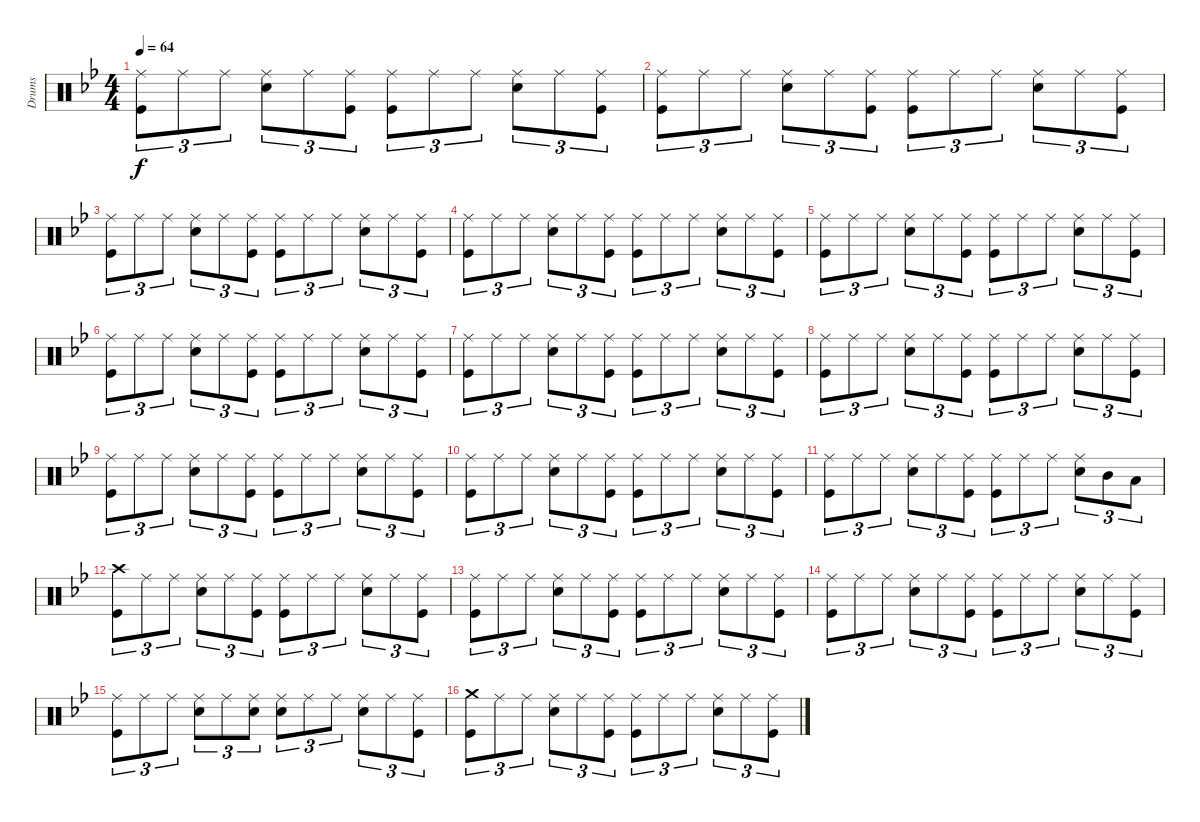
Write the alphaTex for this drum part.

\track ("Drums" "Drums") {instrument percussion}
\staff {score}
\articulation defaults
\ts (4 4)
\tempo 64
\clef neutral
\ks bb
("Ride (middle)" "Kick (hit)").8{tu (3 2) dy f} "Ride (middle)".8{tu (3 2)} "Ride (middle)".8{tu (3 2)} ("Ride (middle)" "Snare (hit) 2").8{tu (3 2)} "Ride (middle)".8{tu (3 2)} ("Ride (middle)" "Kick (hit)").8{tu (3 2)} ("Ride (middle)" "Kick (hit)").8{tu (3 2)} "Ride (middle)".8{tu (3 2)} "Ride (middle)".8{tu (3 2)} ("Ride (middle)" "Snare (hit) 2").8{tu (3 2)} "Ride (middle)".8{tu (3 2)} ("Ride (middle)" "Kick (hit)").8{tu (3 2)} |
("Ride (middle)" "Kick (hit)").8{tu (3 2)} "Ride (middle)".8{tu (3 2)} "Ride (middle)".8{tu (3 2)} ("Ride (middle)" "Snare (hit) 2").8{tu (3 2)} "Ride (middle)".8{tu (3 2)} ("Ride (middle)" "Kick (hit)").8{tu (3 2)} ("Ride (middle)" "Kick (hit)").8{tu (3 2)} "Ride (middle)".8{tu (3 2)} "Ride (middle)".8{tu (3 2)} ("Ride (middle)" "Snare (hit) 2").8{tu (3 2)} "Ride (middle)".8{tu (3 2)} ("Ride (middle)" "Kick (hit)").8{tu (3 2)} |
("Ride (middle)" "Kick (hit)").8{tu (3 2)} "Ride (middle)".8{tu (3 2)} "Ride (middle)".8{tu (3 2)} ("Ride (middle)" "Snare (hit) 2").8{tu (3 2)} "Ride (middle)".8{tu (3 2)} ("Ride (middle)" "Kick (hit)").8{tu (3 2)} ("Ride (middle)" "Kick (hit)").8{tu (3 2)} "Ride (middle)".8{tu (3 2)} "Ride (middle)".8{tu (3 2)} ("Ride (middle)" "Snare (hit) 2").8{tu (3 2)} "Ride (middle)".8{tu (3 2)} ("Ride (middle)" "Kick (hit)").8{tu (3 2)} |
("Ride (middle)" "Kick (hit)").8{tu (3 2)} "Ride (middle)".8{tu (3 2)} "Ride (middle)".8{tu (3 2)} ("Ride (middle)" "Snare (hit) 2").8{tu (3 2)} "Ride (middle)".8{tu (3 2)} ("Ride (middle)" "Kick (hit)").8{tu (3 2)} ("Ride (middle)" "Kick (hit)").8{tu (3 2)} "Ride (middle)".8{tu (3 2)} "Ride (middle)".8{tu (3 2)} ("Ride (middle)" "Snare (hit) 2").8{tu (3 2)} "Ride (middle)".8{tu (3 2)} ("Ride (middle)" "Kick (hit)").8{tu (3 2)} |
("Ride (middle)" "Kick (hit)").8{tu (3 2)} "Ride (middle)".8{tu (3 2)} "Ride (middle)".8{tu (3 2)} ("Ride (middle)" "Snare (hit) 2").8{tu (3 2)} "Ride (middle)".8{tu (3 2)} ("Ride (middle)" "Kick (hit)").8{tu (3 2)} ("Ride (middle)" "Kick (hit)").8{tu (3 2)} "Ride (middle)".8{tu (3 2)} "Ride (middle)".8{tu (3 2)} ("Ride (middle)" "Snare (hit) 2").8{tu (3 2)} "Ride (middle)".8{tu (3 2)} ("Ride (middle)" "Kick (hit)").8{tu (3 2)} |
("Ride (middle)" "Kick (hit)").8{tu (3 2)} "Ride (middle)".8{tu (3 2)} "Ride (middle)".8{tu (3 2)} ("Ride (middle)" "Snare (hit) 2").8{tu (3 2)} "Ride (middle)".8{tu (3 2)} ("Ride (middle)" "Kick (hit)").8{tu (3 2)} ("Ride (middle)" "Kick (hit)").8{tu (3 2)} "Ride (middle)".8{tu (3 2)} "Ride (middle)".8{tu (3 2)} ("Ride (middle)" "Snare (hit) 2").8{tu (3 2)} "Ride (middle)".8{tu (3 2)} ("Ride (middle)" "Kick (hit)").8{tu (3 2)} |
("Ride (middle)" "Kick (hit)").8{tu (3 2)} "Ride (middle)".8{tu (3 2)} "Ride (middle)".8{tu (3 2)} ("Ride (middle)" "Snare (hit) 2").8{tu (3 2)} "Ride (middle)".8{tu (3 2)} ("Ride (middle)" "Kick (hit)").8{tu (3 2)} ("Ride (middle)" "Kick (hit)").8{tu (3 2)} "Ride (middle)".8{tu (3 2)} "Ride (middle)".8{tu (3 2)} ("Ride (middle)" "Snare (hit) 2").8{tu (3 2)} "Ride (middle)".8{tu (3 2)} ("Ride (middle)" "Kick (hit)").8{tu (3 2)} |
("Ride (middle)" "Kick (hit)").8{tu (3 2)} "Ride (middle)".8{tu (3 2)} "Ride (middle)".8{tu (3 2)} ("Ride (middle)" "Snare (hit) 2").8{tu (3 2)} "Ride (middle)".8{tu (3 2)} ("Ride (middle)" "Kick (hit)").8{tu (3 2)} ("Ride (middle)" "Kick (hit)").8{tu (3 2)} "Ride (middle)".8{tu (3 2)} "Ride (middle)".8{tu (3 2)} ("Ride (middle)" "Snare (hit) 2").8{tu (3 2)} "Ride (middle)".8{tu (3 2)} ("Ride (middle)" "Kick (hit)").8{tu (3 2)} |
("Ride (middle)" "Kick (hit)").8{tu (3 2)} "Ride (middle)".8{tu (3 2)} "Ride (middle)".8{tu (3 2)} ("Ride (middle)" "Snare (hit) 2").8{tu (3 2)} "Ride (middle)".8{tu (3 2)} ("Ride (middle)" "Kick (hit)").8{tu (3 2)} ("Ride (middle)" "Kick (hit)").8{tu (3 2)} "Ride (middle)".8{tu (3 2)} "Ride (middle)".8{tu (3 2)} ("Ride (middle)" "Snare (hit) 2").8{tu (3 2)} "Ride (middle)".8{tu (3 2)} ("Ride (middle)" "Kick (hit)").8{tu (3 2)} |
("Ride (middle)" "Kick (hit)").8{tu (3 2)} "Ride (middle)".8{tu (3 2)} "Ride (middle)".8{tu (3 2)} ("Ride (middle)" "Snare (hit) 2").8{tu (3 2)} "Ride (middle)".8{tu (3 2)} ("Ride (middle)" "Kick (hit)").8{tu (3 2)} ("Ride (middle)" "Kick (hit)").8{tu (3 2)} "Ride (middle)".8{tu (3 2)} "Ride (middle)".8{tu (3 2)} ("Ride (middle)" "Snare (hit) 2").8{tu (3 2)} "Ride (middle)".8{tu (3 2)} ("Ride (middle)" "Kick (hit)").8{tu (3 2)} |
("Ride (middle)" "Kick (hit)").8{tu (3 2)} "Ride (middle)".8{tu (3 2)} "Ride (middle)".8{tu (3 2)} ("Ride (middle)" "Snare (hit) 2").8{tu (3 2)} "Ride (middle)".8{tu (3 2)} ("Ride (middle)" "Kick (hit)").8{tu (3 2)} ("Ride (middle)" "Kick (hit)").8{tu (3 2)} "Ride (middle)".8{tu (3 2)} "Ride (middle)".8{tu (3 2)} ("Ride (middle)" "Snare (hit) 2").8{tu (3 2)} "Mid Tom (hit)".8{tu (3 2)} "Low Tom (hit)".8{tu (3 2)} |
("Crash high (hit)" "Kick (hit)").8{tu (3 2)} "Ride (middle)".8{tu (3 2)} "Ride (middle)".8{tu (3 2)} ("Ride (middle)" "Snare (hit) 2").8{tu (3 2)} "Ride (middle)".8{tu (3 2)} ("Ride (middle)" "Kick (hit)").8{tu (3 2)} ("Ride (middle)" "Kick (hit)").8{tu (3 2)} "Ride (middle)".8{tu (3 2)} "Ride (middle)".8{tu (3 2)} ("Ride (middle)" "Snare (hit) 2").8{tu (3 2)} "Ride (middle)".8{tu (3 2)} ("Ride (middle)" "Kick (hit)").8{tu (3 2)} |
("Ride (middle)" "Kick (hit)").8{tu (3 2)} "Ride (middle)".8{tu (3 2)} "Ride (middle)".8{tu (3 2)} ("Ride (middle)" "Snare (hit) 2").8{tu (3 2)} "Ride (middle)".8{tu (3 2)} ("Ride (middle)" "Kick (hit)").8{tu (3 2)} ("Ride (middle)" "Kick (hit)").8{tu (3 2)} "Ride (middle)".8{tu (3 2)} "Ride (middle)".8{tu (3 2)} ("Ride (middle)" "Snare (hit) 2").8{tu (3 2)} "Ride (middle)".8{tu (3 2)} ("Ride (middle)" "Kick (hit)").8{tu (3 2)} |
("Ride (middle)" "Kick (hit)").8{tu (3 2)} "Ride (middle)".8{tu (3 2)} "Ride (middle)".8{tu (3 2)} ("Ride (middle)" "Snare (hit) 2").8{tu (3 2)} "Ride (middle)".8{tu (3 2)} ("Ride (middle)" "Kick (hit)").8{tu (3 2)} ("Ride (middle)" "Kick (hit)").8{tu (3 2)} "Ride (middle)".8{tu (3 2)} "Ride (middle)".8{tu (3 2)} ("Ride (middle)" "Snare (hit) 2").8{tu (3 2)} "Ride (middle)".8{tu (3 2)} ("Ride (middle)" "Kick (hit)").8{tu (3 2)} |
("Ride (middle)" "Kick (hit)").8{tu (3 2)} "Ride (middle)".8{tu (3 2)} "Ride (middle)".8{tu (3 2)} ("Ride (middle)" "Snare (hit) 2").8{tu (3 2)} "Ride (middle)".8{tu (3 2)} ("Ride (middle)" "Snare (hit) 2").8{tu (3 2)} ("Ride (middle)" "Snare (hit) 2").8{tu (3 2)} "Ride (middle)".8{tu (3 2)} "Ride (middle)".8{tu (3 2)} ("Ride (middle)" "Snare (hit) 2").8{tu (3 2)} "Ride (middle)".8{tu (3 2)} ("Ride (middle)" "Kick (hit)").8{tu (3 2)} |
("Crash medium (hit)" "Kick (hit)").8{tu (3 2)} "Ride (middle)".8{tu (3 2)} "Ride (middle)".8{tu (3 2)} ("Ride (middle)" "Snare (hit) 2").8{tu (3 2)} "Ride (middle)".8{tu (3 2)} ("Ride (middle)" "Kick (hit)").8{tu (3 2)} ("Ride (middle)" "Kick (hit)").8{tu (3 2)} "Ride (middle)".8{tu (3 2)} "Ride (middle)".8{tu (3 2)} ("Ride (middle)" "Snare (hit) 2").8{tu (3 2)} "Ride (middle)".8{tu (3 2)} ("Ride (middle)" "Kick (hit)").8{tu (3 2)}
